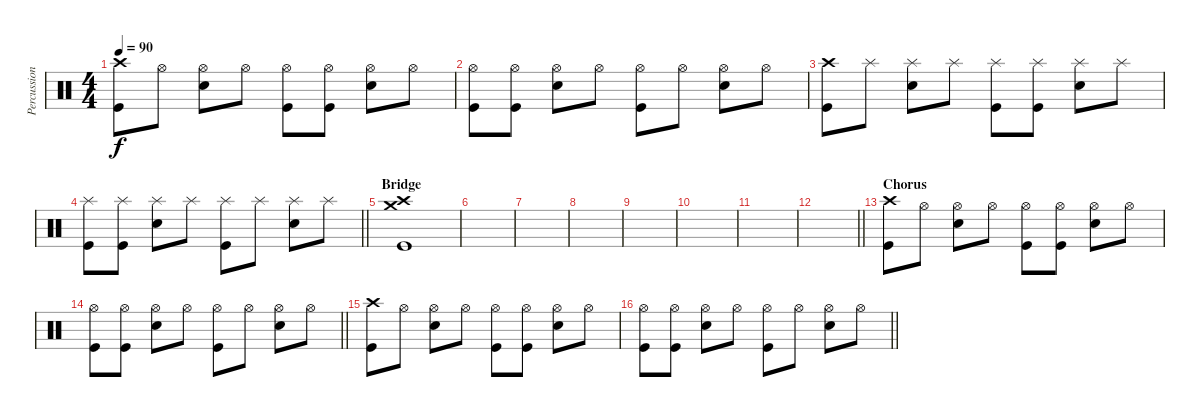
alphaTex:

\track ("Percussion" "Percussion") {instrument percussion}
\staff {score}
\articulation defaults
\ts (4 4)
\tempo 90
\clef neutral
\ks c
("Crash high (hit)" "Kick (hit)").8{dy f} "Hi-Hat (open)".8 ("Hi-Hat (open)" "Snare (hit) 2").8 "Hi-Hat (open)".8 ("Hi-Hat (open)" "Kick (hit)").8 ("Hi-Hat (open)" "Kick (hit)").8 ("Hi-Hat (open)" "Snare (hit) 2").8 "Hi-Hat (open)".8 |
("Hi-Hat (open)" "Kick (hit)").8 ("Hi-Hat (open)" "Kick (hit)").8 ("Hi-Hat (open)" "Snare (hit) 2").8 "Hi-Hat (open)".8 ("Hi-Hat (open)" "Kick (hit)").8 "Hi-Hat (open)".8 ("Hi-Hat (open)" "Snare (hit) 2").8 "Hi-Hat (open)".8 |
("Crash high (hit)" "Kick (hit)").8 "Splash (hit)".8 ("Splash (hit)" "Snare (hit) 2").8 "Splash (hit)".8 ("Splash (hit)" "Kick (hit)").8 ("Splash (hit)" "Kick (hit)").8 ("Splash (hit)" "Snare (hit) 2").8 "Splash (hit)".8 |
\barLineRight lightlight
("Splash (hit)" "Kick (hit)").8 ("Splash (hit)" "Kick (hit)").8 ("Splash (hit)" "Snare (hit) 2").8 "Splash (hit)".8 ("Splash (hit)" "Kick (hit)").8 "Splash (hit)".8 ("Splash (hit)" "Snare (hit) 2").8 "Splash (hit)".8 |
\section ("" "Bridge")
("Crash high (hit)" "Crash medium (hit)" "Kick (hit)").1 |
|
|
|
|
|
|
\barLineRight lightlight
|
\section ("" "Chorus")
("Crash high (hit)" "Kick (hit)").8 "Hi-Hat (open)".8 ("Hi-Hat (open)" "Snare (hit) 2").8 "Hi-Hat (open)".8 ("Hi-Hat (open)" "Kick (hit)").8 ("Hi-Hat (open)" "Kick (hit)").8 ("Hi-Hat (open)" "Snare (hit) 2").8 "Hi-Hat (open)".8 |
\barLineRight lightlight
("Hi-Hat (open)" "Kick (hit)").8 ("Hi-Hat (open)" "Kick (hit)").8 ("Hi-Hat (open)" "Snare (hit) 2").8 "Hi-Hat (open)".8 ("Hi-Hat (open)" "Kick (hit)").8 "Hi-Hat (open)".8 ("Hi-Hat (open)" "Snare (hit) 2").8 "Hi-Hat (open)".8 |
("Crash high (hit)" "Kick (hit)").8 "Hi-Hat (open)".8 ("Hi-Hat (open)" "Snare (hit) 2").8 "Hi-Hat (open)".8 ("Hi-Hat (open)" "Kick (hit)").8 ("Hi-Hat (open)" "Kick (hit)").8 ("Hi-Hat (open)" "Snare (hit) 2").8 "Hi-Hat (open)".8 |
\barLineRight lightlight
("Hi-Hat (open)" "Kick (hit)").8 ("Hi-Hat (open)" "Kick (hit)").8 ("Hi-Hat (open)" "Snare (hit) 2").8 "Hi-Hat (open)".8 ("Hi-Hat (open)" "Kick (hit)").8 "Hi-Hat (open)".8 ("Hi-Hat (open)" "Snare (hit) 2").8 "Hi-Hat (open)".8
